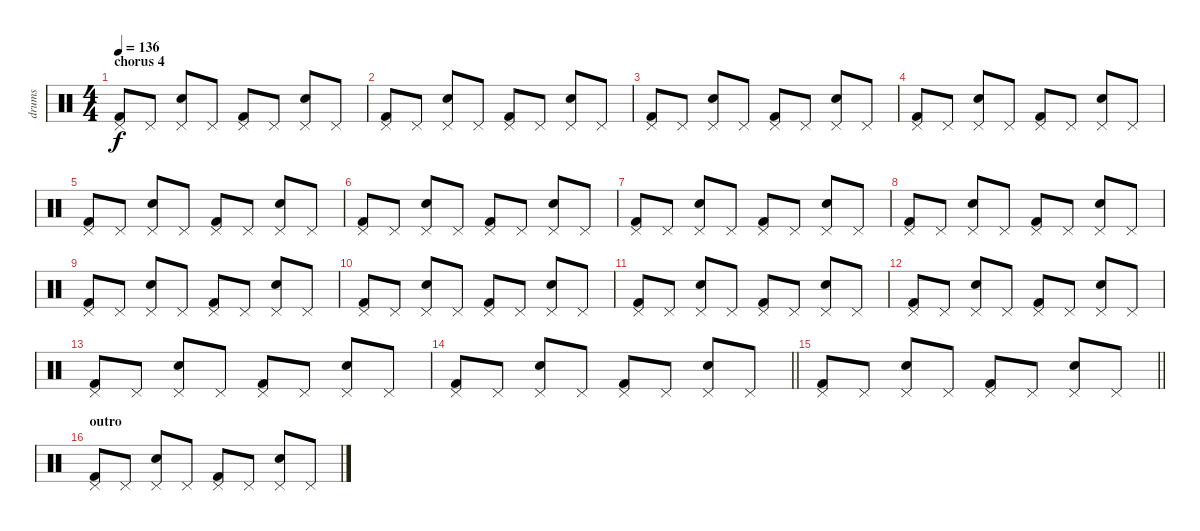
\track ("drums" "drums") {instrument percussion}
\staff {score}
\articulation defaults
\ts (4 4)
\section ("" "chorus 4")
\tempo 136
\clef neutral
\ks c
("Kick (hit) 2" "Pedal Hi-Hat (hit)").8{dy f} "Pedal Hi-Hat (hit)".8 ("Electric Snare (hit)" "Pedal Hi-Hat (hit)").8 "Pedal Hi-Hat (hit)".8 ("Kick (hit) 2" "Pedal Hi-Hat (hit)").8 "Pedal Hi-Hat (hit)".8 ("Electric Snare (hit)" "Pedal Hi-Hat (hit)").8 "Pedal Hi-Hat (hit)".8 |
("Kick (hit) 2" "Pedal Hi-Hat (hit)").8 "Pedal Hi-Hat (hit)".8 ("Electric Snare (hit)" "Pedal Hi-Hat (hit)").8 "Pedal Hi-Hat (hit)".8 ("Kick (hit) 2" "Pedal Hi-Hat (hit)").8 "Pedal Hi-Hat (hit)".8 ("Electric Snare (hit)" "Pedal Hi-Hat (hit)").8 "Pedal Hi-Hat (hit)".8 |
("Kick (hit) 2" "Pedal Hi-Hat (hit)").8 "Pedal Hi-Hat (hit)".8 ("Electric Snare (hit)" "Pedal Hi-Hat (hit)").8 "Pedal Hi-Hat (hit)".8 ("Kick (hit) 2" "Pedal Hi-Hat (hit)").8 "Pedal Hi-Hat (hit)".8 ("Electric Snare (hit)" "Pedal Hi-Hat (hit)").8 "Pedal Hi-Hat (hit)".8 |
("Kick (hit) 2" "Pedal Hi-Hat (hit)").8 "Pedal Hi-Hat (hit)".8 ("Electric Snare (hit)" "Pedal Hi-Hat (hit)").8 "Pedal Hi-Hat (hit)".8 ("Kick (hit) 2" "Pedal Hi-Hat (hit)").8 "Pedal Hi-Hat (hit)".8 ("Electric Snare (hit)" "Pedal Hi-Hat (hit)").8 "Pedal Hi-Hat (hit)".8 |
("Kick (hit) 2" "Pedal Hi-Hat (hit)").8 "Pedal Hi-Hat (hit)".8 ("Electric Snare (hit)" "Pedal Hi-Hat (hit)").8 "Pedal Hi-Hat (hit)".8 ("Kick (hit) 2" "Pedal Hi-Hat (hit)").8 "Pedal Hi-Hat (hit)".8 ("Electric Snare (hit)" "Pedal Hi-Hat (hit)").8 "Pedal Hi-Hat (hit)".8 |
("Kick (hit) 2" "Pedal Hi-Hat (hit)").8 "Pedal Hi-Hat (hit)".8 ("Electric Snare (hit)" "Pedal Hi-Hat (hit)").8 "Pedal Hi-Hat (hit)".8 ("Kick (hit) 2" "Pedal Hi-Hat (hit)").8 "Pedal Hi-Hat (hit)".8 ("Electric Snare (hit)" "Pedal Hi-Hat (hit)").8 "Pedal Hi-Hat (hit)".8 |
("Kick (hit) 2" "Pedal Hi-Hat (hit)").8 "Pedal Hi-Hat (hit)".8 ("Electric Snare (hit)" "Pedal Hi-Hat (hit)").8 "Pedal Hi-Hat (hit)".8 ("Kick (hit) 2" "Pedal Hi-Hat (hit)").8 "Pedal Hi-Hat (hit)".8 ("Electric Snare (hit)" "Pedal Hi-Hat (hit)").8 "Pedal Hi-Hat (hit)".8 |
("Kick (hit) 2" "Pedal Hi-Hat (hit)").8 "Pedal Hi-Hat (hit)".8 ("Electric Snare (hit)" "Pedal Hi-Hat (hit)").8 "Pedal Hi-Hat (hit)".8 ("Kick (hit) 2" "Pedal Hi-Hat (hit)").8 "Pedal Hi-Hat (hit)".8 ("Electric Snare (hit)" "Pedal Hi-Hat (hit)").8 "Pedal Hi-Hat (hit)".8 |
("Kick (hit) 2" "Pedal Hi-Hat (hit)").8 "Pedal Hi-Hat (hit)".8 ("Electric Snare (hit)" "Pedal Hi-Hat (hit)").8 "Pedal Hi-Hat (hit)".8 ("Kick (hit) 2" "Pedal Hi-Hat (hit)").8 "Pedal Hi-Hat (hit)".8 ("Electric Snare (hit)" "Pedal Hi-Hat (hit)").8 "Pedal Hi-Hat (hit)".8 |
("Kick (hit) 2" "Pedal Hi-Hat (hit)").8 "Pedal Hi-Hat (hit)".8 ("Electric Snare (hit)" "Pedal Hi-Hat (hit)").8 "Pedal Hi-Hat (hit)".8 ("Kick (hit) 2" "Pedal Hi-Hat (hit)").8 "Pedal Hi-Hat (hit)".8 ("Electric Snare (hit)" "Pedal Hi-Hat (hit)").8 "Pedal Hi-Hat (hit)".8 |
("Kick (hit) 2" "Pedal Hi-Hat (hit)").8 "Pedal Hi-Hat (hit)".8 ("Electric Snare (hit)" "Pedal Hi-Hat (hit)").8 "Pedal Hi-Hat (hit)".8 ("Kick (hit) 2" "Pedal Hi-Hat (hit)").8 "Pedal Hi-Hat (hit)".8 ("Electric Snare (hit)" "Pedal Hi-Hat (hit)").8 "Pedal Hi-Hat (hit)".8 |
("Kick (hit) 2" "Pedal Hi-Hat (hit)").8 "Pedal Hi-Hat (hit)".8 ("Electric Snare (hit)" "Pedal Hi-Hat (hit)").8 "Pedal Hi-Hat (hit)".8 ("Kick (hit) 2" "Pedal Hi-Hat (hit)").8 "Pedal Hi-Hat (hit)".8 ("Electric Snare (hit)" "Pedal Hi-Hat (hit)").8 "Pedal Hi-Hat (hit)".8 |
("Kick (hit) 2" "Pedal Hi-Hat (hit)").8 "Pedal Hi-Hat (hit)".8 ("Electric Snare (hit)" "Pedal Hi-Hat (hit)").8 "Pedal Hi-Hat (hit)".8 ("Kick (hit) 2" "Pedal Hi-Hat (hit)").8 "Pedal Hi-Hat (hit)".8 ("Electric Snare (hit)" "Pedal Hi-Hat (hit)").8 "Pedal Hi-Hat (hit)".8 |
\barLineRight lightlight
("Kick (hit) 2" "Pedal Hi-Hat (hit)").8 "Pedal Hi-Hat (hit)".8 ("Electric Snare (hit)" "Pedal Hi-Hat (hit)").8 "Pedal Hi-Hat (hit)".8 ("Kick (hit) 2" "Pedal Hi-Hat (hit)").8 "Pedal Hi-Hat (hit)".8 ("Electric Snare (hit)" "Pedal Hi-Hat (hit)").8 "Pedal Hi-Hat (hit)".8 |
\barLineRight lightlight
("Kick (hit) 2" "Pedal Hi-Hat (hit)").8 "Pedal Hi-Hat (hit)".8 ("Electric Snare (hit)" "Pedal Hi-Hat (hit)").8 "Pedal Hi-Hat (hit)".8 ("Kick (hit) 2" "Pedal Hi-Hat (hit)").8 "Pedal Hi-Hat (hit)".8 ("Electric Snare (hit)" "Pedal Hi-Hat (hit)").8 "Pedal Hi-Hat (hit)".8 |
\section ("" "outro")
("Kick (hit) 2" "Pedal Hi-Hat (hit)").8 "Pedal Hi-Hat (hit)".8 ("Electric Snare (hit)" "Pedal Hi-Hat (hit)").8 "Pedal Hi-Hat (hit)".8 ("Kick (hit) 2" "Pedal Hi-Hat (hit)").8 "Pedal Hi-Hat (hit)".8 ("Electric Snare (hit)" "Pedal Hi-Hat (hit)").8 "Pedal Hi-Hat (hit)".8
